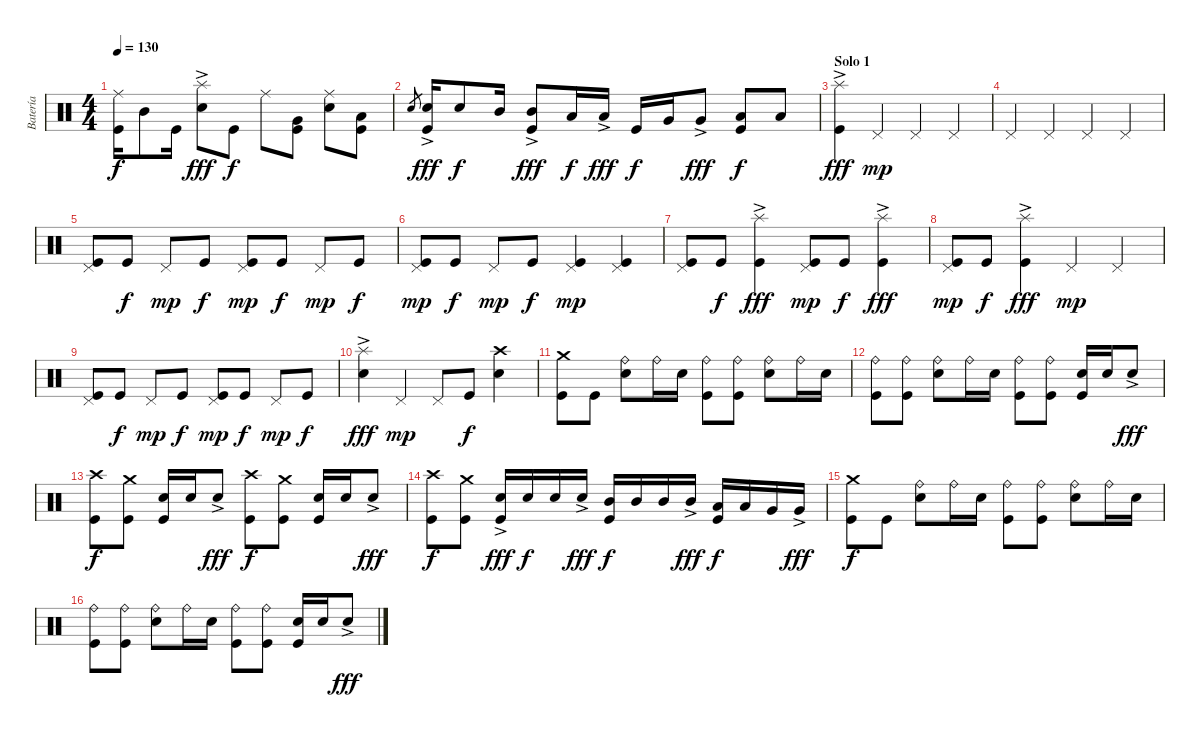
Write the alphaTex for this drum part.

\track ("Batería" "Batería") {instrument percussion}
\staff {score}
\articulation defaults
\ts (4 4)
\tempo 130
\clef neutral
\ks c
("Kick (hit)" "Ride (middle)").16{dy f} "Mid Tom (hit)".8 "Kick (hit)".16 ("Electric Snare (hit)" "Splash (hit)"{ac}).8{dy fff} "Kick (hit)".8{dy f} "Ride (middle)".8 ("Kick (hit)" "Very Low Tom (hit)").8 ("Electric Snare (hit)" "Ride (middle)").8 ("Kick (hit)" "Low Tom (hit)").8 |
"Electric Snare (hit)".8{gr} ("Kick (hit)" "Electric Snare (hit)"{ac}).16{dy fff} "Electric Snare (hit)".8{dy f} "Mid Tom (hit)".16 ("Kick (hit)" "Mid Tom (hit)"{ac}).8{dy fff} "Low Tom (hit)".16{dy f} "Low Tom (hit)"{ac}.16{dy fff} "Kick (hit)".16{dy f} "Very Low Tom (hit)".16 "Very Low Tom (hit)"{ac}.8{dy fff} ("Kick (hit)" "Low Floor Tom (hit)").8{dy f} "Low Floor Tom (hit)".8 |
\section ("" "Solo 1")
("Kick (hit)" "Splash (hit)"{ac}).4{dy fff} "Pedal Hi-Hat (hit)".4{dy mp} "Pedal Hi-Hat (hit)".4 "Pedal Hi-Hat (hit)".4 |
"Pedal Hi-Hat (hit)".4 "Pedal Hi-Hat (hit)".4 "Pedal Hi-Hat (hit)".4 "Pedal Hi-Hat (hit)".4 |
("Kick (hit)" "Pedal Hi-Hat (hit)").8 "Kick (hit)".8{dy f} "Pedal Hi-Hat (hit)".8{dy mp} "Kick (hit)".8{dy f} ("Kick (hit)" "Pedal Hi-Hat (hit)").8{dy mp} "Kick (hit)".8{dy f} "Pedal Hi-Hat (hit)".8{dy mp} "Kick (hit)".8{dy f} |
("Kick (hit)" "Pedal Hi-Hat (hit)").8{dy mp} "Kick (hit)".8{dy f} "Pedal Hi-Hat (hit)".8{dy mp} "Kick (hit)".8{dy f} ("Kick (hit)" "Pedal Hi-Hat (hit)").4{dy mp} ("Kick (hit)" "Pedal Hi-Hat (hit)").4 |
("Kick (hit)" "Pedal Hi-Hat (hit)").8 "Kick (hit)".8{dy f} ("Kick (hit)" "Splash (hit)"{ac}).4{dy fff} ("Kick (hit)" "Pedal Hi-Hat (hit)").8{dy mp} "Kick (hit)".8{dy f} ("Kick (hit)" "Splash (hit)"{ac}).4{dy fff} |
("Kick (hit)" "Pedal Hi-Hat (hit)").8{dy mp} "Kick (hit)".8{dy f} ("Kick (hit)" "Splash (hit)"{ac}).4{dy fff} "Pedal Hi-Hat (hit)".4{dy mp} "Pedal Hi-Hat (hit)".4 |
("Kick (hit)" "Pedal Hi-Hat (hit)").8 "Kick (hit)".8{dy f} "Pedal Hi-Hat (hit)".8{dy mp} "Kick (hit)".8{dy f} ("Kick (hit)" "Pedal Hi-Hat (hit)").8{dy mp} "Kick (hit)".8{dy f} "Pedal Hi-Hat (hit)".8{dy mp} "Kick (hit)".8{dy f} |
("Electric Snare (hit)" "Splash (hit)"{ac}).4{dy fff} "Pedal Hi-Hat (hit)".4{dy mp} "Pedal Hi-Hat (hit)".8 "Kick (hit)".8{dy f} ("Electric Snare (hit)" "Crash high (hit)").4 |
("Kick (hit)" "Crash medium (hit)").8 "Kick (hit)".8 ("Electric Snare (hit)" "Ride (bell)").8 "Ride (bell)".16 "Electric Snare (hit)".16 ("Kick (hit)" "Ride (bell)").8 ("Kick (hit)" "Ride (bell)").8 ("Electric Snare (hit)" "Ride (bell)").8 "Ride (bell)".16 "Electric Snare (hit)".16 |
("Kick (hit)" "Ride (bell)").8 ("Kick (hit)" "Ride (bell)").8 ("Electric Snare (hit)" "Ride (bell)").8 "Ride (bell)".16 "Electric Snare (hit)".16 ("Kick (hit)" "Ride (bell)").8 ("Kick (hit)" "Ride (bell)").8 ("Kick (hit)" "Electric Snare (hit)").16 "Electric Snare (hit)".16 "Electric Snare (hit)"{ac}.8{dy fff} |
("Kick (hit)" "Crash high (hit)").8{dy f} ("Kick (hit)" "Crash medium (hit)").8 ("Kick (hit)" "Electric Snare (hit)").16 "Electric Snare (hit)".16 "Electric Snare (hit)"{ac}.8{dy fff} ("Kick (hit)" "Crash high (hit)").8{dy f} ("Kick (hit)" "Crash medium (hit)").8 ("Kick (hit)" "Electric Snare (hit)").16 "Electric Snare (hit)".16 "Electric Snare (hit)"{ac}.8{dy fff} |
("Kick (hit)" "Crash high (hit)").8{dy f} ("Kick (hit)" "Crash medium (hit)").8 ("Kick (hit)" "Electric Snare (hit)"{ac}).16{dy fff} "Electric Snare (hit)".16{dy f} "Electric Snare (hit)".16 "Electric Snare (hit)"{ac}.16{dy fff} ("Kick (hit)" "Mid Tom (hit)").16{dy f} "Mid Tom (hit)".16 "Mid Tom (hit)".16 "Mid Tom (hit)"{ac}.16{dy fff} ("Kick (hit)" "Low Tom (hit)").16{dy f} "Low Tom (hit)".16 "Very Low Tom (hit)".16 "Very Low Tom (hit)"{ac}.16{dy fff} |
("Kick (hit)" "Crash medium (hit)").8{dy f} "Kick (hit)".8 ("Electric Snare (hit)" "Ride (bell)").8 "Ride (bell)".16 "Electric Snare (hit)".16 ("Kick (hit)" "Ride (bell)").8 ("Kick (hit)" "Ride (bell)").8 ("Electric Snare (hit)" "Ride (bell)").8 "Ride (bell)".16 "Electric Snare (hit)".16 |
("Kick (hit)" "Ride (bell)").8 ("Kick (hit)" "Ride (bell)").8 ("Electric Snare (hit)" "Ride (bell)").8 "Ride (bell)".16 "Electric Snare (hit)".16 ("Kick (hit)" "Ride (bell)").8 ("Kick (hit)" "Ride (bell)").8 ("Kick (hit)" "Electric Snare (hit)").16 "Electric Snare (hit)".16 "Electric Snare (hit)"{ac}.8{dy fff}
